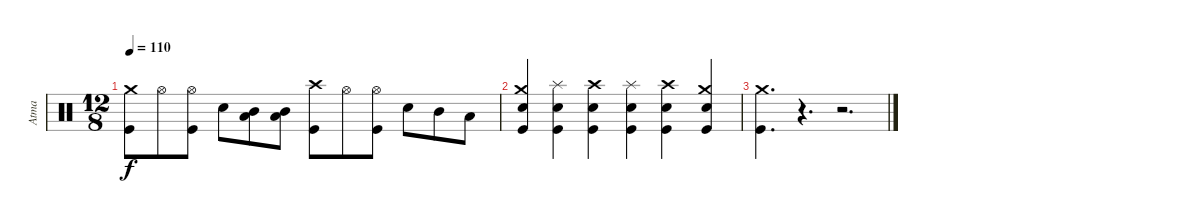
\track ("Atma" "Atma") {instrument percussion}
\staff {score}
\articulation defaults
\ts (12 8)
\tempo 110
\clef neutral
\ks c
("Kick (hit)" "Crash medium (hit)").8{dy f} "Hi-Hat (open)".8 ("Kick (hit)" "Hi-Hat (open)").8 "Snare (hit) 2".8 ("Mid Tom (hit)" "Low Tom (hit)").8 ("Mid Tom (hit)" "Low Tom (hit)").8 ("Kick (hit)" "Crash high (hit)").8 "Hi-Hat (open)".8 ("Kick (hit)" "Hi-Hat (open)").8 "Snare (hit) 2".8 "Mid Tom (hit)".8 "Low Tom (hit)".8 |
("Kick (hit)" "Snare (hit) 2" "Crash medium (hit)").4 ("Kick (hit)" "Snare (hit) 2" "Splash (hit)").4 ("Kick (hit)" "Snare (hit) 2" "Crash high (hit)").4 ("Kick (hit)" "Snare (hit) 2" "Splash (hit)").4 ("Kick (hit)" "Snare (hit) 2" "Crash high (hit)").4 ("Kick (hit)" "Snare (hit) 2" "Crash medium (hit)").4 |
("Kick (hit)" "Crash medium (hit)").4{d} r.4{d} r.2{d}
